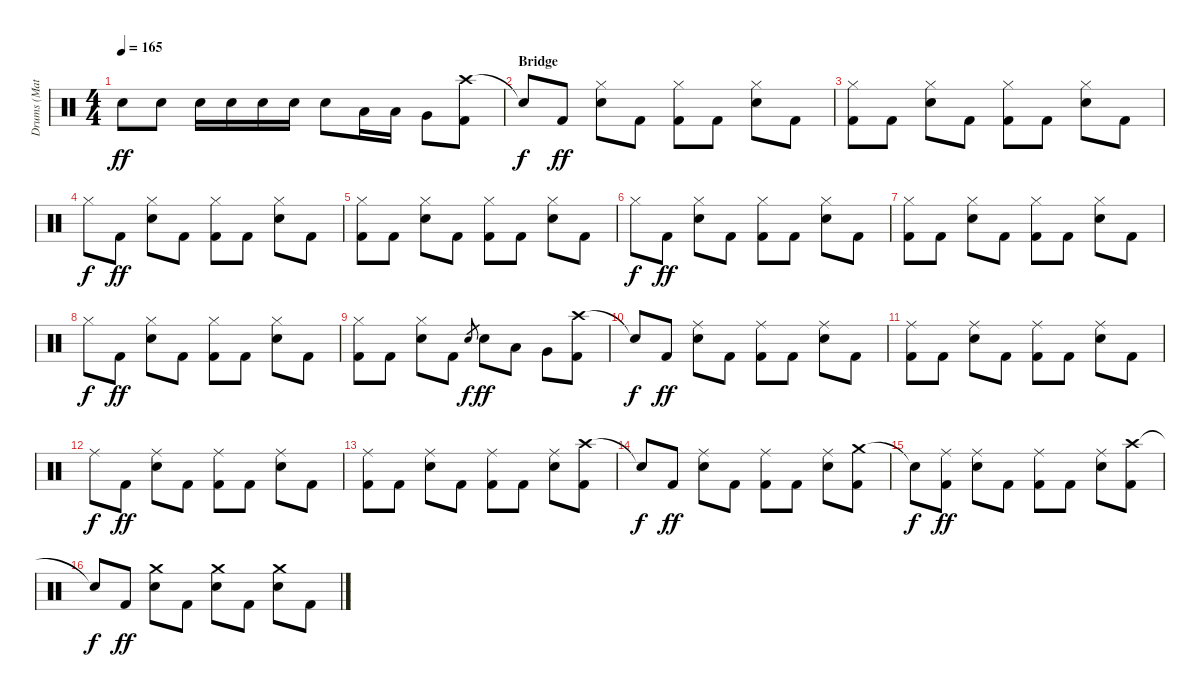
\track ("Drums (Matt)" "Drums (Mat") {instrument percussion}
\staff {score}
\articulation defaults
\ts (4 4)
\tempo 165
\clef neutral
\ks c "Snare (hit) 2".8{dy ff} "Snare (hit) 2".8 "Snare (hit) 2".16 "Snare (hit) 2".16 "Snare (hit) 2".16 "Snare (hit) 2".16 "Snare (hit) 2".8 "Low Tom (hit)".16 "Low Tom (hit)".16 "Very Low Tom (hit)".8
("Crash high (hit)" "Kick (hit) 2").8 |
\section ("" "Bridge")
"Snare (hit)"{t}.8{dy f} "Kick (hit) 2".8{dy ff} ("Hi-Hat (closed)" "Snare (hit) 2").8 "Kick (hit) 2".8 ("Hi-Hat (closed)" "Kick (hit) 2").8 "Kick (hit) 2".8 ("Hi-Hat (closed)" "Snare (hit) 2").8 "Kick (hit) 2".8 |
("Hi-Hat (closed)" "Kick (hit) 2").8 "Kick (hit) 2".8 ("Hi-Hat (closed)" "Snare (hit) 2").8 "Kick (hit) 2".8 ("Hi-Hat (closed)" "Kick (hit) 2").8 "Kick (hit) 2".8 ("Hi-Hat (closed)" "Snare (hit) 2").8 "Kick (hit) 2".8 |
"Hi-Hat (closed)".8{dy f} "Kick (hit) 2".8{dy ff} ("Hi-Hat (closed)" "Snare (hit) 2").8 "Kick (hit) 2".8 ("Hi-Hat (closed)" "Kick (hit) 2").8 "Kick (hit) 2".8 ("Hi-Hat (closed)" "Snare (hit) 2").8 "Kick (hit) 2".8 |
("Hi-Hat (closed)" "Kick (hit) 2").8 "Kick (hit) 2".8 ("Hi-Hat (closed)" "Snare (hit) 2").8 "Kick (hit) 2".8 ("Hi-Hat (closed)" "Kick (hit) 2").8 "Kick (hit) 2".8 ("Hi-Hat (closed)" "Snare (hit) 2").8 "Kick (hit) 2".8 |
"Hi-Hat (closed)".8{dy f} "Kick (hit) 2".8{dy ff} ("Hi-Hat (closed)" "Snare (hit) 2").8 "Kick (hit) 2".8 ("Hi-Hat (closed)" "Kick (hit) 2").8 "Kick (hit) 2".8 ("Hi-Hat (closed)" "Snare (hit) 2").8 "Kick (hit) 2".8 |
("Hi-Hat (closed)" "Kick (hit) 2").8 "Kick (hit) 2".8 ("Hi-Hat (closed)" "Snare (hit) 2").8 "Kick (hit) 2".8 ("Hi-Hat (closed)" "Kick (hit) 2").8 "Kick (hit) 2".8 ("Hi-Hat (closed)" "Snare (hit) 2").8 "Kick (hit) 2".8 |
"Hi-Hat (closed)".8{dy f} "Kick (hit) 2".8{dy ff} ("Hi-Hat (closed)" "Snare (hit) 2").8 "Kick (hit) 2".8 ("Hi-Hat (closed)" "Kick (hit) 2").8 "Kick (hit) 2".8 ("Hi-Hat (closed)" "Snare (hit) 2").8 "Kick (hit) 2".8 |
("Hi-Hat (closed)" "Kick (hit) 2").8 "Kick (hit) 2".8 ("Hi-Hat (closed)" "Snare (hit) 2").8 "Kick (hit) 2".8 "Snare (hit) 2".8{gr dy f} "Snare (hit) 2".8{dy ff} "Low Tom (hit)".8 "Very Low Tom (hit)".8 ("Crash high (hit)" "Kick (hit) 2").8 |
"Snare (hit)"{t}.8{dy f} "Kick (hit) 2".8{dy ff} ("Ride (middle)" "Snare (hit) 2").8 "Kick (hit) 2".8 ("Ride (middle)" "Kick (hit) 2").8 "Kick (hit) 2".8 ("Ride (middle)" "Snare (hit) 2").8 "Kick (hit) 2".8 |
("Ride (middle)" "Kick (hit) 2").8 "Kick (hit) 2".8 ("Ride (middle)" "Snare (hit) 2").8 "Kick (hit) 2".8 ("Ride (middle)" "Kick (hit) 2").8 "Kick (hit) 2".8 ("Ride (middle)" "Snare (hit) 2").8 "Kick (hit) 2".8 |
"Ride (middle)".8{dy f} "Kick (hit) 2".8{dy ff} ("Ride (middle)" "Snare (hit) 2").8 "Kick (hit) 2".8 ("Ride (middle)" "Kick (hit) 2").8 "Kick (hit) 2".8 ("Ride (middle)" "Snare (hit) 2").8 "Kick (hit) 2".8 |
("Ride (middle)" "Kick (hit) 2").8 "Kick (hit) 2".8 ("Ride (middle)" "Snare (hit) 2").8 "Kick (hit) 2".8 ("Ride (middle)" "Kick (hit) 2").8 "Kick (hit) 2".8 ("Ride (middle)" "Snare (hit) 2").8 ("Crash high (hit)" "Kick (hit) 2").8 |
"Snare (hit)"{t}.8{dy f} "Kick (hit) 2".8{dy ff} ("Ride (middle)" "Snare (hit) 2").8 "Kick (hit) 2".8 ("Ride (middle)" "Kick (hit) 2").8 "Kick (hit) 2".8 ("Ride (middle)" "Snare (hit) 2").8 ("Crash medium (hit)" "Kick (hit) 2").8 |
"Snare (hit)"{t}.8{dy f} ("Ride (middle)" "Kick (hit) 2").8{dy ff} ("Ride (middle)" "Snare (hit) 2").8 "Kick (hit) 2".8 ("Ride (middle)" "Kick (hit) 2").8 "Kick (hit) 2".8 ("Ride (middle)" "Snare (hit) 2").8 ("Crash high (hit)" "Kick (hit) 2").8 |
"Snare (hit)"{t}.8{dy f} "Kick (hit) 2".8{dy ff} ("Crash medium (hit)" "Snare (hit) 2").8 "Kick (hit) 2".8 ("Crash medium (hit)" "Snare (hit) 2").8 "Kick (hit) 2".8 ("Crash medium (hit)" "Snare (hit) 2").8 "Kick (hit) 2".8
